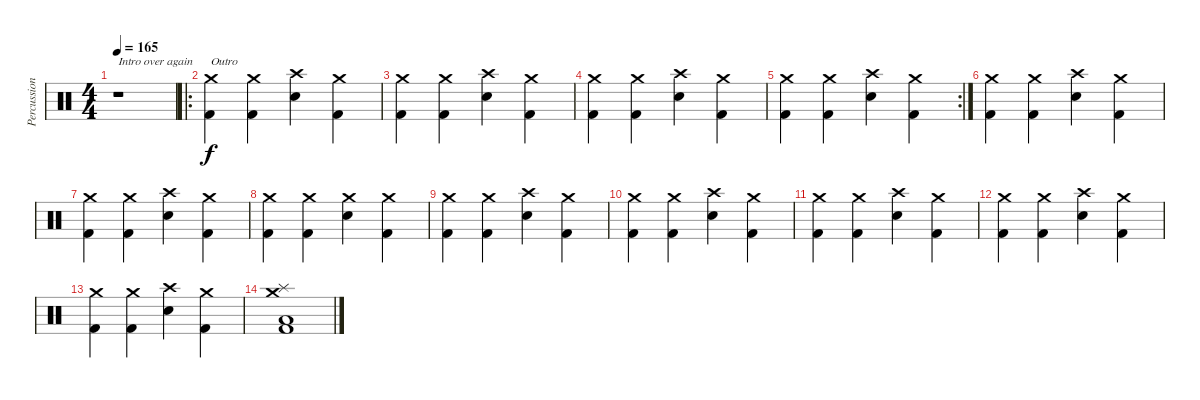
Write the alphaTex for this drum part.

\track ("Percussion" "Percussion") {instrument percussion}
\staff {score}
\articulation defaults
\ts (4 4)
\tempo 165
\clef neutral
\ks c
r.1{txt "Intro over again" dy f} |
\ro
("Crash medium (hit)" "Kick (hit) 2").4{txt "Outro"} ("Crash medium (hit)" "Kick (hit) 2").4 ("Crash high (hit)" "Electric Snare (hit)").4 ("Crash medium (hit)" "Kick (hit) 2").4 |
("Crash medium (hit)" "Kick (hit) 2").4 ("Crash medium (hit)" "Kick (hit) 2").4 ("Crash high (hit)" "Electric Snare (hit)").4 ("Crash medium (hit)" "Kick (hit) 2").4 |
("Crash medium (hit)" "Kick (hit) 2").4 ("Crash medium (hit)" "Kick (hit) 2").4 ("Crash high (hit)" "Electric Snare (hit)").4 ("Crash medium (hit)" "Kick (hit) 2").4 |
\rc 2
("Crash medium (hit)" "Kick (hit) 2").4 ("Crash medium (hit)" "Kick (hit) 2").4 ("Crash high (hit)" "Electric Snare (hit)").4 ("Crash medium (hit)" "Kick (hit) 2").4 |
("Crash medium (hit)" "Kick (hit) 2").4 ("Crash medium (hit)" "Kick (hit) 2").4 ("Crash high (hit)" "Electric Snare (hit)").4 ("Crash medium (hit)" "Kick (hit) 2").4 |
("Crash medium (hit)" "Kick (hit) 2").4 ("Crash medium (hit)" "Kick (hit) 2").4 ("Crash high (hit)" "Electric Snare (hit)").4 ("Crash medium (hit)" "Kick (hit) 2").4 |
("Crash medium (hit)" "Kick (hit) 2").4 ("Crash medium (hit)" "Kick (hit) 2").4 ("Crash medium (hit)" "Electric Snare (hit)").4 ("Crash medium (hit)" "Kick (hit) 2").4 |
("Crash medium (hit)" "Kick (hit) 2").4 ("Crash medium (hit)" "Kick (hit) 2").4 ("Crash high (hit)" "Electric Snare (hit)").4 ("Crash medium (hit)" "Kick (hit) 2").4 |
("Crash medium (hit)" "Kick (hit) 2").4 ("Crash medium (hit)" "Kick (hit) 2").4 ("Crash high (hit)" "Electric Snare (hit)").4 ("Crash medium (hit)" "Kick (hit) 2").4 |
("Crash medium (hit)" "Kick (hit) 2").4 ("Crash medium (hit)" "Kick (hit) 2").4 ("Crash high (hit)" "Electric Snare (hit)").4 ("Crash medium (hit)" "Kick (hit) 2").4 |
("Crash medium (hit)" "Kick (hit) 2").4 ("Crash medium (hit)" "Kick (hit) 2").4 ("Crash high (hit)" "Electric Snare (hit)").4 ("Crash medium (hit)" "Kick (hit) 2").4 |
("Crash medium (hit)" "Kick (hit) 2").4 ("Crash medium (hit)" "Kick (hit) 2").4 ("Crash high (hit)" "Electric Snare (hit)").4 ("Crash medium (hit)" "Kick (hit) 2").4 |
("Crash medium (hit)" "Splash (hit)" "Low Floor Tom (hit)" "Kick (hit) 2").1
